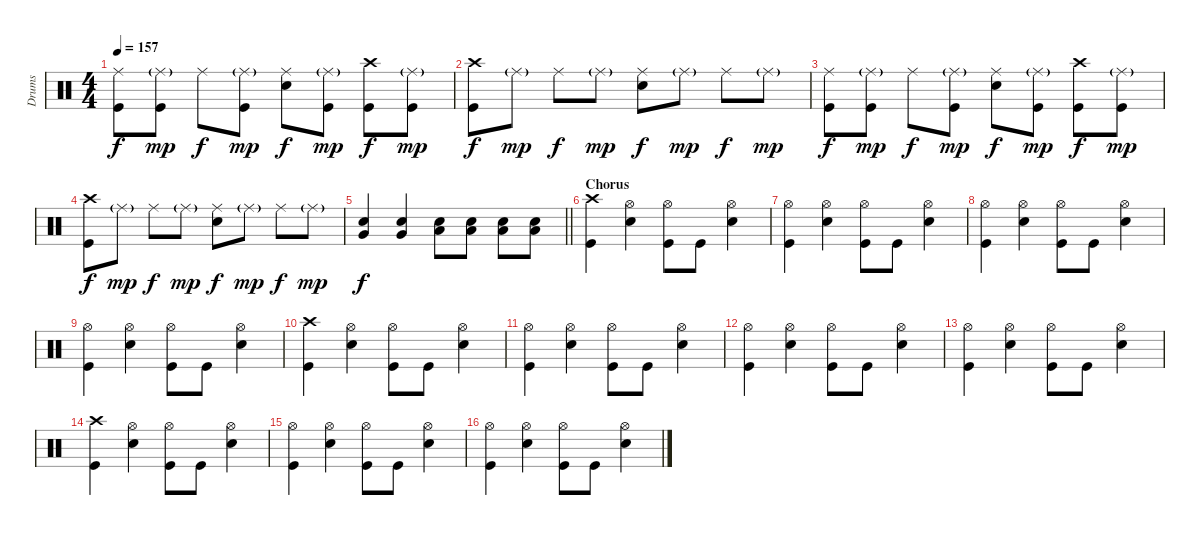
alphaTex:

\track ("Drums" "Drums") {instrument percussion}
\staff {score}
\articulation defaults
\ts (4 4)
\tempo 157
\clef neutral
\ks c
("Ride (middle)" "Kick (hit)").8{dy f} ("Ride (middle)"{g} "Kick (hit)").8{dy mp} "Ride (middle)".8{dy f} ("Kick (hit)" "Ride (middle)"{g}).8{dy mp} ("Ride (middle)" "Snare (hit) 2").8{dy f} ("Ride (middle)"{g} "Kick (hit)").8{dy mp} ("Crash high (hit)" "Kick (hit)").8{dy f} ("Ride (middle)"{g} "Kick (hit)").8{dy mp} |
("Crash high (hit)" "Kick (hit)").8{dy f} "Ride (middle)"{g}.8{dy mp} "Ride (middle)".8{dy f} "Ride (middle)"{g}.8{dy mp} ("Ride (middle)" "Snare (hit) 2").8{dy f} "Ride (middle)"{g}.8{dy mp} "Ride (middle)".8{dy f} "Ride (middle)"{g}.8{dy mp} |
("Ride (middle)" "Kick (hit)").8{dy f} ("Ride (middle)"{g} "Kick (hit)").8{dy mp} "Ride (middle)".8{dy f} ("Kick (hit)" "Ride (middle)"{g}).8{dy mp} ("Ride (middle)" "Snare (hit) 2").8{dy f} ("Ride (middle)"{g} "Kick (hit)").8{dy mp} ("Crash high (hit)" "Kick (hit)").8{dy f} ("Ride (middle)"{g} "Kick (hit)").8{dy mp} |
("Crash high (hit)" "Kick (hit)").8{dy f} "Ride (middle)"{g}.8{dy mp} "Ride (middle)".8{dy f} "Ride (middle)"{g}.8{dy mp} ("Ride (middle)" "Snare (hit) 2").8{dy f} "Ride (middle)"{g}.8{dy mp} "Ride (middle)".8{dy f} "Ride (middle)"{g}.8{dy mp} |
\barLineRight lightlight
("Snare (hit) 2" "Very Low Tom (hit)").4{dy f} ("Snare (hit) 2" "Very Low Tom (hit)").4 ("Snare (hit) 2" "Low Tom (hit)").8 ("Snare (hit) 2" "Low Tom (hit)").8 ("Snare (hit) 2" "Low Tom (hit)").8 ("Snare (hit) 2" "Low Tom (hit)").8 |
\section ("" "Chorus")
("Crash high (hit)" "Kick (hit)").4 ("Hi-Hat (open)" "Snare (hit) 2").4 ("Hi-Hat (open)" "Kick (hit)").8 "Kick (hit)".8 ("Hi-Hat (open)" "Snare (hit) 2").4 |
("Hi-Hat (open)" "Kick (hit)").4 ("Hi-Hat (open)" "Snare (hit) 2").4 ("Hi-Hat (open)" "Kick (hit)").8 "Kick (hit)".8 ("Hi-Hat (open)" "Snare (hit) 2").4 |
("Hi-Hat (open)" "Kick (hit)").4 ("Hi-Hat (open)" "Snare (hit) 2").4 ("Hi-Hat (open)" "Kick (hit)").8 "Kick (hit)".8 ("Hi-Hat (open)" "Snare (hit) 2").4 |
("Hi-Hat (open)" "Kick (hit)").4 ("Hi-Hat (open)" "Snare (hit) 2").4 ("Hi-Hat (open)" "Kick (hit)").8 "Kick (hit)".8 ("Hi-Hat (open)" "Snare (hit) 2").4 |
("Crash high (hit)" "Kick (hit)").4 ("Hi-Hat (open)" "Snare (hit) 2").4 ("Hi-Hat (open)" "Kick (hit)").8 "Kick (hit)".8 ("Hi-Hat (open)" "Snare (hit) 2").4 |
("Hi-Hat (open)" "Kick (hit)").4 ("Hi-Hat (open)" "Snare (hit) 2").4 ("Hi-Hat (open)" "Kick (hit)").8 "Kick (hit)".8 ("Hi-Hat (open)" "Snare (hit) 2").4 |
("Hi-Hat (open)" "Kick (hit)").4 ("Hi-Hat (open)" "Snare (hit) 2").4 ("Hi-Hat (open)" "Kick (hit)").8 "Kick (hit)".8 ("Hi-Hat (open)" "Snare (hit) 2").4 |
("Hi-Hat (open)" "Kick (hit)").4 ("Hi-Hat (open)" "Snare (hit) 2").4 ("Hi-Hat (open)" "Kick (hit)").8 "Kick (hit)".8 ("Hi-Hat (open)" "Snare (hit) 2").4 |
("Crash high (hit)" "Kick (hit)").4 ("Hi-Hat (open)" "Snare (hit) 2").4 ("Hi-Hat (open)" "Kick (hit)").8 "Kick (hit)".8 ("Hi-Hat (open)" "Snare (hit) 2").4 |
("Hi-Hat (open)" "Kick (hit)").4 ("Hi-Hat (open)" "Snare (hit) 2").4 ("Hi-Hat (open)" "Kick (hit)").8 "Kick (hit)".8 ("Hi-Hat (open)" "Snare (hit) 2").4 |
("Hi-Hat (open)" "Kick (hit)").4 ("Hi-Hat (open)" "Snare (hit) 2").4 ("Hi-Hat (open)" "Kick (hit)").8 "Kick (hit)".8 ("Hi-Hat (open)" "Snare (hit) 2").4
